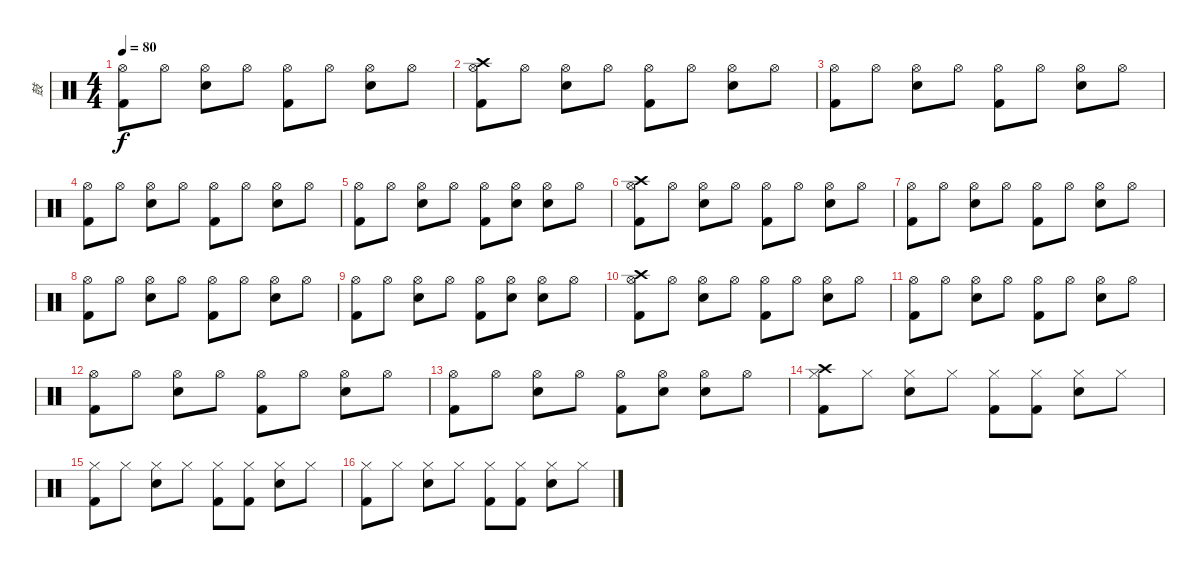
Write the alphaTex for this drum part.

\track ("鼓" "鼓") {instrument percussion}
\staff {score}
\articulation defaults
\ts (4 4)
\tempo 80
\clef neutral
\ks c
("Hi-Hat (open)" "Kick (hit) 2").8{dy f} "Hi-Hat (open)".8 ("Hi-Hat (open)" "Snare (hit) 2").8 "Hi-Hat (open)".8 ("Hi-Hat (open)" "Kick (hit) 2").8 "Hi-Hat (open)".8 ("Hi-Hat (open)" "Snare (hit) 2").8 "Hi-Hat (open)".8 |
("Hi-Hat (open)" "Crash high (hit)" "Kick (hit) 2").8 "Hi-Hat (open)".8 ("Hi-Hat (open)" "Snare (hit) 2").8 "Hi-Hat (open)".8 ("Hi-Hat (open)" "Kick (hit) 2").8 "Hi-Hat (open)".8 ("Hi-Hat (open)" "Snare (hit) 2").8 "Hi-Hat (open)".8 |
("Hi-Hat (open)" "Kick (hit) 2").8 "Hi-Hat (open)".8 ("Hi-Hat (open)" "Snare (hit) 2").8 "Hi-Hat (open)".8 ("Hi-Hat (open)" "Kick (hit) 2").8 "Hi-Hat (open)".8 ("Hi-Hat (open)" "Snare (hit) 2").8 "Hi-Hat (open)".8 |
("Hi-Hat (open)" "Kick (hit) 2").8 "Hi-Hat (open)".8 ("Hi-Hat (open)" "Snare (hit) 2").8 "Hi-Hat (open)".8 ("Hi-Hat (open)" "Kick (hit) 2").8 "Hi-Hat (open)".8 ("Hi-Hat (open)" "Snare (hit) 2").8 "Hi-Hat (open)".8 |
("Hi-Hat (open)" "Kick (hit) 2").8 "Hi-Hat (open)".8 ("Hi-Hat (open)" "Snare (hit) 2").8 "Hi-Hat (open)".8 ("Hi-Hat (open)" "Kick (hit) 2").8 ("Hi-Hat (open)" "Snare (hit) 2").8 ("Hi-Hat (open)" "Snare (hit) 2").8 "Hi-Hat (open)".8 |
("Hi-Hat (open)" "Crash high (hit)" "Kick (hit) 2").8 "Hi-Hat (open)".8 ("Hi-Hat (open)" "Snare (hit) 2").8 "Hi-Hat (open)".8 ("Hi-Hat (open)" "Kick (hit) 2").8 "Hi-Hat (open)".8 ("Hi-Hat (open)" "Snare (hit) 2").8 "Hi-Hat (open)".8 |
("Hi-Hat (open)" "Kick (hit) 2").8 "Hi-Hat (open)".8 ("Hi-Hat (open)" "Snare (hit) 2").8 "Hi-Hat (open)".8 ("Hi-Hat (open)" "Kick (hit) 2").8 "Hi-Hat (open)".8 ("Hi-Hat (open)" "Snare (hit) 2").8 "Hi-Hat (open)".8 |
("Hi-Hat (open)" "Kick (hit) 2").8 "Hi-Hat (open)".8 ("Hi-Hat (open)" "Snare (hit) 2").8 "Hi-Hat (open)".8 ("Hi-Hat (open)" "Kick (hit) 2").8 "Hi-Hat (open)".8 ("Hi-Hat (open)" "Snare (hit) 2").8 "Hi-Hat (open)".8 |
("Hi-Hat (open)" "Kick (hit) 2").8 "Hi-Hat (open)".8 ("Hi-Hat (open)" "Snare (hit) 2").8 "Hi-Hat (open)".8 ("Hi-Hat (open)" "Kick (hit) 2").8 ("Hi-Hat (open)" "Snare (hit) 2").8 ("Hi-Hat (open)" "Snare (hit) 2").8 "Hi-Hat (open)".8 |
("Hi-Hat (open)" "Crash high (hit)" "Kick (hit) 2").8 "Hi-Hat (open)".8 ("Hi-Hat (open)" "Snare (hit) 2").8 "Hi-Hat (open)".8 ("Hi-Hat (open)" "Kick (hit) 2").8 "Hi-Hat (open)".8 ("Hi-Hat (open)" "Snare (hit) 2").8 "Hi-Hat (open)".8 |
("Hi-Hat (open)" "Kick (hit) 2").8 "Hi-Hat (open)".8 ("Hi-Hat (open)" "Snare (hit) 2").8 "Hi-Hat (open)".8 ("Hi-Hat (open)" "Kick (hit) 2").8 "Hi-Hat (open)".8 ("Hi-Hat (open)" "Snare (hit) 2").8 "Hi-Hat (open)".8 |
("Hi-Hat (open)" "Kick (hit) 2").8 "Hi-Hat (open)".8 ("Hi-Hat (open)" "Snare (hit) 2").8 "Hi-Hat (open)".8 ("Hi-Hat (open)" "Kick (hit) 2").8 "Hi-Hat (open)".8 ("Hi-Hat (open)" "Snare (hit) 2").8 "Hi-Hat (open)".8 |
("Hi-Hat (open)" "Kick (hit) 2").8 "Hi-Hat (open)".8 ("Hi-Hat (open)" "Snare (hit) 2").8 "Hi-Hat (open)".8 ("Hi-Hat (open)" "Kick (hit) 2").8 ("Hi-Hat (open)" "Snare (hit) 2").8 ("Hi-Hat (open)" "Snare (hit) 2").8 "Hi-Hat (open)".8 |
("Hi-Hat (closed)" "Crash high (hit)" "Kick (hit) 2").8 "Hi-Hat (closed)".8 ("Hi-Hat (closed)" "Snare (hit) 2").8 "Hi-Hat (closed)".8 ("Hi-Hat (closed)" "Kick (hit) 2").8 ("Hi-Hat (closed)" "Kick (hit) 2").8 ("Hi-Hat (closed)" "Snare (hit) 2").8 "Hi-Hat (closed)".8 |
("Hi-Hat (closed)" "Kick (hit) 2").8 "Hi-Hat (closed)".8 ("Hi-Hat (closed)" "Snare (hit) 2").8 "Hi-Hat (closed)".8 ("Hi-Hat (closed)" "Kick (hit) 2").8 ("Hi-Hat (closed)" "Kick (hit) 2").8 ("Hi-Hat (closed)" "Snare (hit) 2").8 "Hi-Hat (closed)".8 |
("Hi-Hat (closed)" "Kick (hit) 2").8 "Hi-Hat (closed)".8 ("Hi-Hat (closed)" "Snare (hit) 2").8 "Hi-Hat (closed)".8 ("Hi-Hat (closed)" "Kick (hit) 2").8 ("Hi-Hat (closed)" "Kick (hit) 2").8 ("Hi-Hat (closed)" "Snare (hit) 2").8 "Hi-Hat (closed)".8
